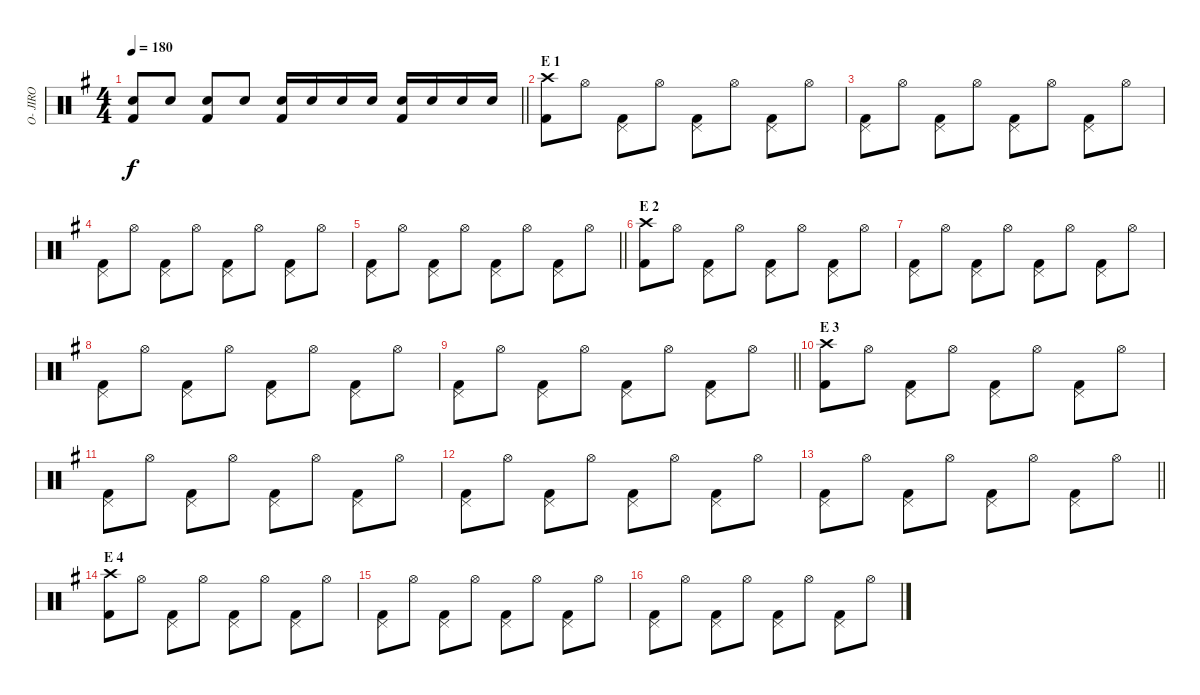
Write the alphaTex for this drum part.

\track ("O- JIRO" "O- JIRO") {instrument percussion}
\staff {score}
\articulation defaults
\ts (4 4)
\tempo 180
\clef neutral
\barLineRight lightlight
\ks g
("Snare (hit) 2" "Kick (hit) 2").8{dy f} "Snare (hit) 2".8 ("Kick (hit) 2" "Snare (hit) 2").8 "Snare (hit) 2".8 ("Snare (hit) 2" "Kick (hit) 2").16 "Snare (hit) 2".16 "Snare (hit) 2".16 "Snare (hit) 2".16 ("Snare (hit) 2" "Kick (hit) 2").16 "Snare (hit) 2".16 "Snare (hit) 2".16 "Snare (hit) 2".16 |
\section ("" "E 1")
("Crash high (hit)" "Kick (hit) 2").8 "Hi-Hat (open)".8 ("Pedal Hi-Hat (hit)" "Kick (hit) 2").8 "Hi-Hat (open)".8 ("Pedal Hi-Hat (hit)" "Kick (hit) 2").8 "Hi-Hat (open)".8 ("Pedal Hi-Hat (hit)" "Kick (hit) 2").8 "Hi-Hat (open)".8 |
("Pedal Hi-Hat (hit)" "Kick (hit) 2").8 "Hi-Hat (open)".8 ("Pedal Hi-Hat (hit)" "Kick (hit) 2").8 "Hi-Hat (open)".8 ("Pedal Hi-Hat (hit)" "Kick (hit) 2").8 "Hi-Hat (open)".8 ("Pedal Hi-Hat (hit)" "Kick (hit) 2").8 "Hi-Hat (open)".8 |
("Pedal Hi-Hat (hit)" "Kick (hit) 2").8 "Hi-Hat (open)".8 ("Pedal Hi-Hat (hit)" "Kick (hit) 2").8 "Hi-Hat (open)".8 ("Pedal Hi-Hat (hit)" "Kick (hit) 2").8 "Hi-Hat (open)".8 ("Pedal Hi-Hat (hit)" "Kick (hit) 2").8 "Hi-Hat (open)".8 |
\barLineRight lightlight
("Pedal Hi-Hat (hit)" "Kick (hit) 2").8 "Hi-Hat (open)".8 ("Pedal Hi-Hat (hit)" "Kick (hit) 2").8 "Hi-Hat (open)".8 ("Pedal Hi-Hat (hit)" "Kick (hit) 2").8 "Hi-Hat (open)".8 ("Pedal Hi-Hat (hit)" "Kick (hit) 2").8 "Hi-Hat (open)".8 |
\section ("" "E 2")
("Crash high (hit)" "Kick (hit) 2").8 "Hi-Hat (open)".8 ("Pedal Hi-Hat (hit)" "Kick (hit) 2").8 "Hi-Hat (open)".8 ("Pedal Hi-Hat (hit)" "Kick (hit) 2").8 "Hi-Hat (open)".8 ("Pedal Hi-Hat (hit)" "Kick (hit) 2").8 "Hi-Hat (open)".8 |
("Pedal Hi-Hat (hit)" "Kick (hit) 2").8 "Hi-Hat (open)".8 ("Pedal Hi-Hat (hit)" "Kick (hit) 2").8 "Hi-Hat (open)".8 ("Pedal Hi-Hat (hit)" "Kick (hit) 2").8 "Hi-Hat (open)".8 ("Pedal Hi-Hat (hit)" "Kick (hit) 2").8 "Hi-Hat (open)".8 |
("Pedal Hi-Hat (hit)" "Kick (hit) 2").8 "Hi-Hat (open)".8 ("Pedal Hi-Hat (hit)" "Kick (hit) 2").8 "Hi-Hat (open)".8 ("Pedal Hi-Hat (hit)" "Kick (hit) 2").8 "Hi-Hat (open)".8 ("Pedal Hi-Hat (hit)" "Kick (hit) 2").8 "Hi-Hat (open)".8 |
\barLineRight lightlight
("Pedal Hi-Hat (hit)" "Kick (hit) 2").8 "Hi-Hat (open)".8 ("Pedal Hi-Hat (hit)" "Kick (hit) 2").8 "Hi-Hat (open)".8 ("Pedal Hi-Hat (hit)" "Kick (hit) 2").8 "Hi-Hat (open)".8 ("Pedal Hi-Hat (hit)" "Kick (hit) 2").8 "Hi-Hat (open)".8 |
\section ("" "E 3")
("Crash high (hit)" "Kick (hit) 2").8 "Hi-Hat (open)".8 ("Pedal Hi-Hat (hit)" "Kick (hit) 2").8 "Hi-Hat (open)".8 ("Pedal Hi-Hat (hit)" "Kick (hit) 2").8 "Hi-Hat (open)".8 ("Pedal Hi-Hat (hit)" "Kick (hit) 2").8 "Hi-Hat (open)".8 |
("Pedal Hi-Hat (hit)" "Kick (hit) 2").8 "Hi-Hat (open)".8 ("Pedal Hi-Hat (hit)" "Kick (hit) 2").8 "Hi-Hat (open)".8 ("Pedal Hi-Hat (hit)" "Kick (hit) 2").8 "Hi-Hat (open)".8 ("Pedal Hi-Hat (hit)" "Kick (hit) 2").8 "Hi-Hat (open)".8 |
("Pedal Hi-Hat (hit)" "Kick (hit) 2").8 "Hi-Hat (open)".8 ("Pedal Hi-Hat (hit)" "Kick (hit) 2").8 "Hi-Hat (open)".8 ("Pedal Hi-Hat (hit)" "Kick (hit) 2").8 "Hi-Hat (open)".8 ("Pedal Hi-Hat (hit)" "Kick (hit) 2").8 "Hi-Hat (open)".8 |
\barLineRight lightlight
("Pedal Hi-Hat (hit)" "Kick (hit) 2").8 "Hi-Hat (open)".8 ("Pedal Hi-Hat (hit)" "Kick (hit) 2").8 "Hi-Hat (open)".8 ("Pedal Hi-Hat (hit)" "Kick (hit) 2").8 "Hi-Hat (open)".8 ("Pedal Hi-Hat (hit)" "Kick (hit) 2").8 "Hi-Hat (open)".8 |
\section ("" "E 4")
("Crash high (hit)" "Kick (hit) 2").8 "Hi-Hat (open)".8 ("Pedal Hi-Hat (hit)" "Kick (hit) 2").8 "Hi-Hat (open)".8 ("Pedal Hi-Hat (hit)" "Kick (hit) 2").8 "Hi-Hat (open)".8 ("Pedal Hi-Hat (hit)" "Kick (hit) 2").8 "Hi-Hat (open)".8 |
("Pedal Hi-Hat (hit)" "Kick (hit) 2").8 "Hi-Hat (open)".8 ("Pedal Hi-Hat (hit)" "Kick (hit) 2").8 "Hi-Hat (open)".8 ("Pedal Hi-Hat (hit)" "Kick (hit) 2").8 "Hi-Hat (open)".8 ("Pedal Hi-Hat (hit)" "Kick (hit) 2").8 "Hi-Hat (open)".8 |
("Pedal Hi-Hat (hit)" "Kick (hit) 2").8 "Hi-Hat (open)".8 ("Pedal Hi-Hat (hit)" "Kick (hit) 2").8 "Hi-Hat (open)".8 ("Pedal Hi-Hat (hit)" "Kick (hit) 2").8 "Hi-Hat (open)".8 ("Pedal Hi-Hat (hit)" "Kick (hit) 2").8 "Hi-Hat (open)".8
